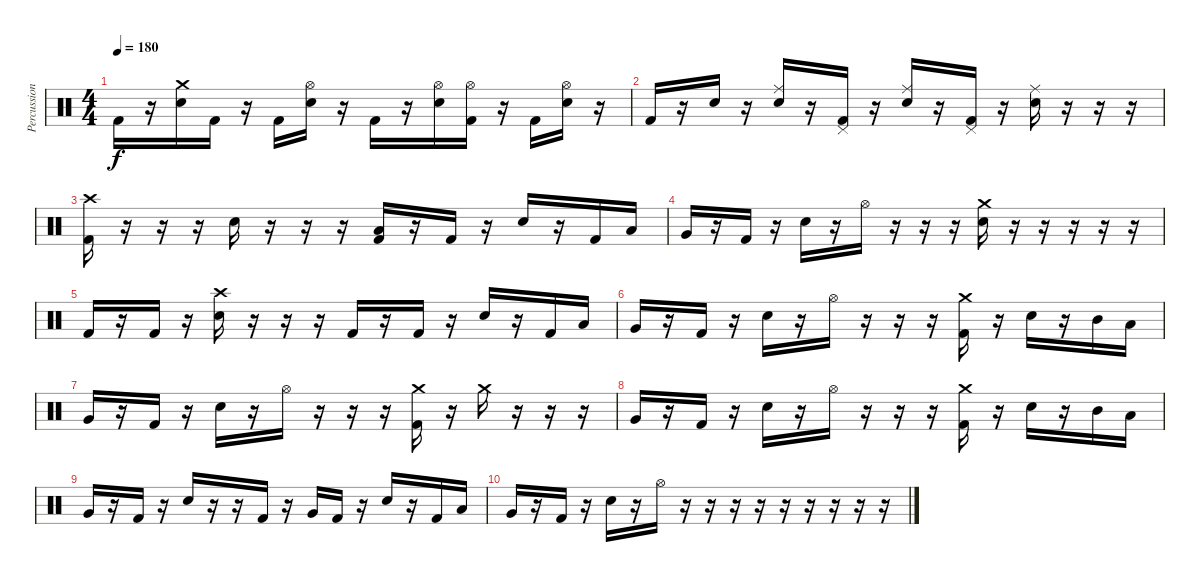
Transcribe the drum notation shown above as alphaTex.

\track ("Percussion" "Percussion") {instrument percussion}
\staff {score}
\articulation defaults
\ts (4 4)
\tempo 180
\clef neutral
\ks c "Kick (hit) 2".16{dy f}
r.16 ("Crash medium (hit)" "Electric Snare (hit)").16 "Kick (hit) 2".16 r.16 "Kick (hit) 2".16 ("Hi-Hat (open)" "Electric Snare (hit)").16 r.16 "Kick (hit) 2".16 r.16 ("Hi-Hat (open)" "Electric Snare (hit)").16 ("Hi-Hat (open)" "Kick (hit) 2").16 r.16 "Kick (hit) 2".16 ("Hi-Hat (open)" "Electric Snare (hit)").16 r.16 |
"Kick (hit) 2".16 r.16 "Electric Snare (hit)".16 r.16 ("Ride (middle)" "Electric Snare (hit)").16 r.16 ("Pedal Hi-Hat (hit)" "Kick (hit) 2").16 r.16 ("Ride (middle)" "Electric Snare (hit)").16 r.16 ("Pedal Hi-Hat (hit)" "Kick (hit) 2").16 r.16 ("Ride (middle)" "Electric Snare (hit)").16 r.16 r.16 r.16 |
("Crash high (hit)" "Kick (hit) 2").16 r.16 r.16 r.16 "Electric Snare (hit)".16 r.16 r.16 r.16 ("Low Tom (hit)" "Kick (hit) 2").16 r.16 "Kick (hit) 2".16 r.16 "Electric Snare (hit)".16 r.16 "Kick (hit) 2".16 "Low Tom (hit)".16 |
"Very Low Tom (hit)".16 r.16 "Kick (hit) 2".16 r.16 "Electric Snare (hit)".16 r.16 "Hi-Hat (open)".16 r.16 r.16 r.16 ("Crash medium (hit)" "Electric Snare (hit)").16 r.16 r.16 r.16 r.16 r.16 |
"Kick (hit) 2".16 r.16 "Kick (hit) 2".16 r.16 ("Crash high (hit)" "Electric Snare (hit)").16 r.16 r.16 r.16 "Kick (hit) 2".16 r.16 "Kick (hit) 2".16 r.16 "Electric Snare (hit)".16 r.16 "Kick (hit) 2".16 "Low Tom (hit)".16 |
"Very Low Tom (hit)".16 r.16 "Kick (hit) 2".16 r.16 "Electric Snare (hit)".16 r.16 "Hi-Hat (open)".16 r.16 r.16 r.16 ("Crash medium (hit)" "Kick (hit) 2").16 r.16 "Electric Snare (hit)".16 r.16 "Mid Tom (hit)".16 "Low Tom (hit)".16 |
"Very Low Tom (hit)".16 r.16 "Kick (hit) 2".16 r.16 "Electric Snare (hit)".16 r.16 "Hi-Hat (open)".16 r.16 r.16 r.16 ("Crash medium (hit)" "Kick (hit) 2").16 r.16 "Crash medium (hit)".16 r.16 r.16 r.16 |
"Very Low Tom (hit)".16 r.16 "Kick (hit) 2".16 r.16 "Electric Snare (hit)".16 r.16 "Hi-Hat (open)".16 r.16 r.16 r.16 ("Crash medium (hit)" "Kick (hit) 2").16 r.16 "Electric Snare (hit)".16 r.16 "Mid Tom (hit)".16 "Low Tom (hit)".16 |
"Very Low Tom (hit)".16 r.16 "Kick (hit) 2".16 r.16 "Electric Snare (hit)".16 r.16 r.16 "Kick (hit) 2".16 r.16 "Very Low Tom (hit)".16 "Kick (hit) 2".16 r.16 "Electric Snare (hit)".16 r.16 "Kick (hit) 2".16 "Low Tom (hit)".16 |
"Very Low Tom (hit)".16 r.16 "Kick (hit) 2".16 r.16 "Electric Snare (hit)".16 r.16 "Hi-Hat (open)".16 r.16 r.16 r.16 r.16 r.16 r.16 r.16 r.16 r.16
